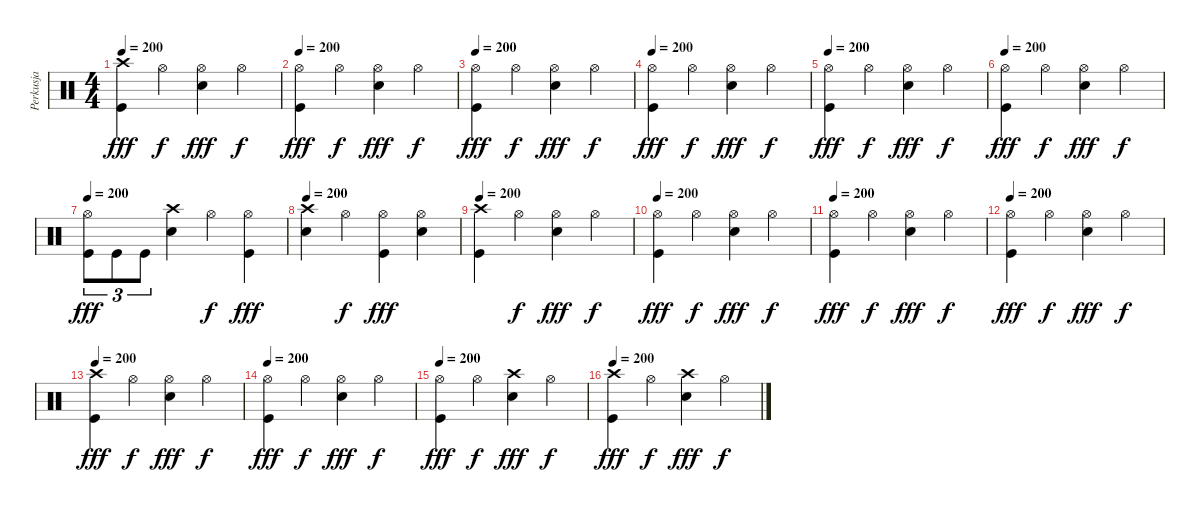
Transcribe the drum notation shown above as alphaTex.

\track ("Perkusja" "Perkusja") {instrument percussion}
\staff {score}
\articulation defaults
\ts (4 4)
\tempo 200
\clef neutral
\ks c
("Crash high (hit)" "Kick (hit)").4{dy fff} "Hi-Hat (open)".4{dy f} ("Hi-Hat (open)" "Snare (hit) 2").4{dy fff} "Hi-Hat (open)".4{dy f} |
\tempo 200
("Hi-Hat (open)" "Kick (hit)").4{dy fff} "Hi-Hat (open)".4{dy f} ("Hi-Hat (open)" "Snare (hit) 2").4{dy fff} "Hi-Hat (open)".4{dy f} |
\tempo 200
("Hi-Hat (open)" "Kick (hit)").4{dy fff} "Hi-Hat (open)".4{dy f} ("Hi-Hat (open)" "Snare (hit) 2").4{dy fff} "Hi-Hat (open)".4{dy f} |
\tempo 200
("Hi-Hat (open)" "Kick (hit)").4{dy fff} "Hi-Hat (open)".4{dy f} ("Hi-Hat (open)" "Snare (hit) 2").4{dy fff} "Hi-Hat (open)".4{dy f} |
\tempo 200
("Hi-Hat (open)" "Kick (hit)").4{dy fff} "Hi-Hat (open)".4{dy f} ("Hi-Hat (open)" "Snare (hit) 2").4{dy fff} "Hi-Hat (open)".4{dy f} |
\tempo 200
("Hi-Hat (open)" "Kick (hit)").4{dy fff} "Hi-Hat (open)".4{dy f} ("Hi-Hat (open)" "Snare (hit) 2").4{dy fff} "Hi-Hat (open)".4{dy f} |
\tempo 200
("Hi-Hat (open)" "Kick (hit)").8{tu (3 2) dy fff} "Kick (hit)".8{tu (3 2)} "Kick (hit)".8{tu (3 2)} ("Crash high (hit)" "Snare (hit) 2").4 "Hi-Hat (open)".4{dy f} ("Hi-Hat (open)" "Kick (hit)").4{dy fff} |
\tempo 200
("Crash high (hit)" "Snare (hit) 2").4 "Hi-Hat (open)".4{dy f} ("Hi-Hat (open)" "Kick (hit)").4{dy fff} ("Hi-Hat (open)" "Snare (hit) 2").4 |
\tempo 200
("Crash high (hit)" "Kick (hit)").4 "Hi-Hat (open)".4{dy f} ("Hi-Hat (open)" "Snare (hit) 2").4{dy fff} "Hi-Hat (open)".4{dy f} |
\tempo 200
("Hi-Hat (open)" "Kick (hit)").4{dy fff} "Hi-Hat (open)".4{dy f} ("Hi-Hat (open)" "Snare (hit) 2").4{dy fff} "Hi-Hat (open)".4{dy f} |
\tempo 200
("Hi-Hat (open)" "Kick (hit)").4{dy fff} "Hi-Hat (open)".4{dy f} ("Hi-Hat (open)" "Snare (hit) 2").4{dy fff} "Hi-Hat (open)".4{dy f} |
\tempo 200
("Hi-Hat (open)" "Kick (hit)").4{dy fff} "Hi-Hat (open)".4{dy f} ("Hi-Hat (open)" "Snare (hit) 2").4{dy fff} "Hi-Hat (open)".4{dy f} |
\tempo 200
("Crash high (hit)" "Kick (hit)").4{dy fff} "Hi-Hat (open)".4{dy f} ("Hi-Hat (open)" "Snare (hit) 2").4{dy fff} "Hi-Hat (open)".4{dy f} |
\tempo 200
("Hi-Hat (open)" "Kick (hit)").4{dy fff} "Hi-Hat (open)".4{dy f} ("Hi-Hat (open)" "Snare (hit) 2").4{dy fff} "Hi-Hat (open)".4{dy f} |
\tempo 200
("Hi-Hat (open)" "Kick (hit)").4{dy fff} "Hi-Hat (open)".4{dy f} ("Crash high (hit)" "Snare (hit) 2").4{dy fff} "Hi-Hat (open)".4{dy f} |
\tempo 200
("Crash high (hit)" "Kick (hit)").4{dy fff} "Hi-Hat (open)".4{dy f} ("Crash high (hit)" "Snare (hit) 2").4{dy fff} "Hi-Hat (open)".4{dy f}
